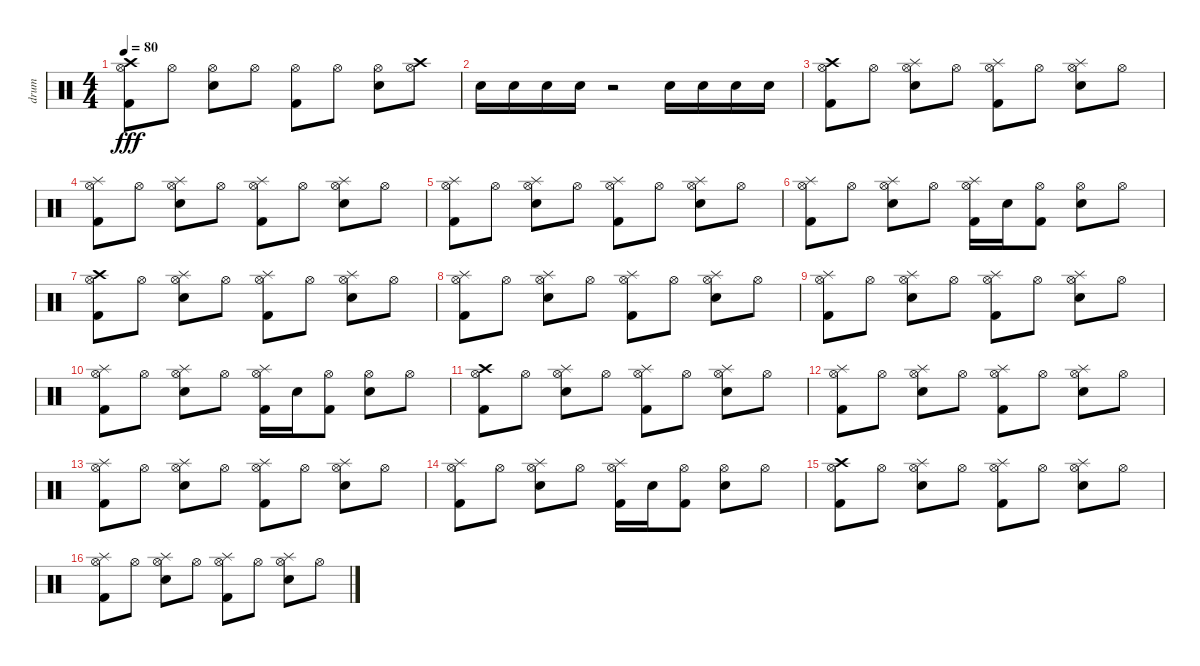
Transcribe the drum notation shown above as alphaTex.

\track ("drum" "drum") {instrument percussion}
\staff {score}
\articulation defaults
\ts (4 4)
\tempo 80
\clef neutral
\ks c
("Crash high (hit)" "Hi-Hat (open)" "Kick (hit) 2").8{dy fff} "Hi-Hat (open)".8 ("Hi-Hat (open)" "Electric Snare (hit)").8 "Hi-Hat (open)".8 ("Hi-Hat (open)" "Kick (hit) 2").8 "Hi-Hat (open)".8 ("Hi-Hat (open)" "Electric Snare (hit)").8 ("Crash high (hit)" "Hi-Hat (open)").8 |
"Electric Snare (hit)".16 "Electric Snare (hit)".16 "Electric Snare (hit)".16 "Electric Snare (hit)".16 r.2 "Electric Snare (hit)".16 "Electric Snare (hit)".16 "Electric Snare (hit)".16 "Electric Snare (hit)".16 |
("Crash high (hit)" "Hi-Hat (open)" "Kick (hit) 2").8 "Hi-Hat (open)".8 ("Splash (hit)" "Hi-Hat (open)" "Electric Snare (hit)").8 "Hi-Hat (open)".8 ("Splash (hit)" "Hi-Hat (open)" "Kick (hit) 2").8 "Hi-Hat (open)".8 ("Splash (hit)" "Hi-Hat (open)" "Electric Snare (hit)").8 "Hi-Hat (open)".8 |
("Splash (hit)" "Hi-Hat (open)" "Kick (hit) 2").8 "Hi-Hat (open)".8 ("Splash (hit)" "Hi-Hat (open)" "Electric Snare (hit)").8 "Hi-Hat (open)".8 ("Splash (hit)" "Hi-Hat (open)" "Kick (hit) 2").8 "Hi-Hat (open)".8 ("Splash (hit)" "Hi-Hat (open)" "Electric Snare (hit)").8 "Hi-Hat (open)".8 |
("Splash (hit)" "Hi-Hat (open)" "Kick (hit) 2").8 "Hi-Hat (open)".8 ("Splash (hit)" "Hi-Hat (open)" "Electric Snare (hit)").8 "Hi-Hat (open)".8 ("Splash (hit)" "Hi-Hat (open)" "Kick (hit) 2").8 "Hi-Hat (open)".8 ("Splash (hit)" "Hi-Hat (open)" "Electric Snare (hit)").8 "Hi-Hat (open)".8 |
("Splash (hit)" "Hi-Hat (open)" "Kick (hit) 2").8 "Hi-Hat (open)".8 ("Splash (hit)" "Hi-Hat (open)" "Electric Snare (hit)").8 "Hi-Hat (open)".8 ("Splash (hit)" "Hi-Hat (open)" "Kick (hit) 2").16 "Electric Snare (hit)".16 ("Hi-Hat (open)" "Kick (hit) 2").8 ("Hi-Hat (open)" "Electric Snare (hit)").8 "Hi-Hat (open)".8 |
("Crash high (hit)" "Hi-Hat (open)" "Kick (hit) 2").8 "Hi-Hat (open)".8 ("Splash (hit)" "Hi-Hat (open)" "Electric Snare (hit)").8 "Hi-Hat (open)".8 ("Splash (hit)" "Hi-Hat (open)" "Kick (hit) 2").8 "Hi-Hat (open)".8 ("Splash (hit)" "Hi-Hat (open)" "Electric Snare (hit)").8 "Hi-Hat (open)".8 |
("Splash (hit)" "Hi-Hat (open)" "Kick (hit) 2").8 "Hi-Hat (open)".8 ("Splash (hit)" "Hi-Hat (open)" "Electric Snare (hit)").8 "Hi-Hat (open)".8 ("Splash (hit)" "Hi-Hat (open)" "Kick (hit) 2").8 "Hi-Hat (open)".8 ("Splash (hit)" "Hi-Hat (open)" "Electric Snare (hit)").8 "Hi-Hat (open)".8 |
("Splash (hit)" "Hi-Hat (open)" "Kick (hit) 2").8 "Hi-Hat (open)".8 ("Splash (hit)" "Hi-Hat (open)" "Electric Snare (hit)").8 "Hi-Hat (open)".8 ("Splash (hit)" "Hi-Hat (open)" "Kick (hit) 2").8 "Hi-Hat (open)".8 ("Splash (hit)" "Hi-Hat (open)" "Electric Snare (hit)").8 "Hi-Hat (open)".8 |
("Splash (hit)" "Hi-Hat (open)" "Kick (hit) 2").8 "Hi-Hat (open)".8 ("Splash (hit)" "Hi-Hat (open)" "Electric Snare (hit)").8 "Hi-Hat (open)".8 ("Splash (hit)" "Hi-Hat (open)" "Kick (hit) 2").16 "Electric Snare (hit)".16 ("Hi-Hat (open)" "Kick (hit) 2").8 ("Hi-Hat (open)" "Electric Snare (hit)").8 "Hi-Hat (open)".8 |
("Crash high (hit)" "Hi-Hat (open)" "Kick (hit) 2").8 "Hi-Hat (open)".8 ("Splash (hit)" "Hi-Hat (open)" "Electric Snare (hit)").8 "Hi-Hat (open)".8 ("Splash (hit)" "Hi-Hat (open)" "Kick (hit) 2").8 "Hi-Hat (open)".8 ("Splash (hit)" "Hi-Hat (open)" "Electric Snare (hit)").8 "Hi-Hat (open)".8 |
("Splash (hit)" "Hi-Hat (open)" "Kick (hit) 2").8 "Hi-Hat (open)".8 ("Splash (hit)" "Hi-Hat (open)" "Electric Snare (hit)").8 "Hi-Hat (open)".8 ("Splash (hit)" "Hi-Hat (open)" "Kick (hit) 2").8 "Hi-Hat (open)".8 ("Splash (hit)" "Hi-Hat (open)" "Electric Snare (hit)").8 "Hi-Hat (open)".8 |
("Splash (hit)" "Hi-Hat (open)" "Kick (hit) 2").8 "Hi-Hat (open)".8 ("Splash (hit)" "Hi-Hat (open)" "Electric Snare (hit)").8 "Hi-Hat (open)".8 ("Splash (hit)" "Hi-Hat (open)" "Kick (hit) 2").8 "Hi-Hat (open)".8 ("Splash (hit)" "Hi-Hat (open)" "Electric Snare (hit)").8 "Hi-Hat (open)".8 |
("Splash (hit)" "Hi-Hat (open)" "Kick (hit) 2").8 "Hi-Hat (open)".8 ("Splash (hit)" "Hi-Hat (open)" "Electric Snare (hit)").8 "Hi-Hat (open)".8 ("Splash (hit)" "Hi-Hat (open)" "Kick (hit) 2").16 "Electric Snare (hit)".16 ("Hi-Hat (open)" "Kick (hit) 2").8 ("Hi-Hat (open)" "Electric Snare (hit)").8 "Hi-Hat (open)".8 |
("Crash high (hit)" "Hi-Hat (open)" "Kick (hit) 2").8 "Hi-Hat (open)".8 ("Splash (hit)" "Hi-Hat (open)" "Electric Snare (hit)").8 "Hi-Hat (open)".8 ("Splash (hit)" "Hi-Hat (open)" "Kick (hit) 2").8 "Hi-Hat (open)".8 ("Splash (hit)" "Hi-Hat (open)" "Electric Snare (hit)").8 "Hi-Hat (open)".8 |
("Splash (hit)" "Hi-Hat (open)" "Kick (hit) 2").8 "Hi-Hat (open)".8 ("Splash (hit)" "Hi-Hat (open)" "Electric Snare (hit)").8 "Hi-Hat (open)".8 ("Splash (hit)" "Hi-Hat (open)" "Kick (hit) 2").8 "Hi-Hat (open)".8 ("Splash (hit)" "Hi-Hat (open)" "Electric Snare (hit)").8 "Hi-Hat (open)".8
